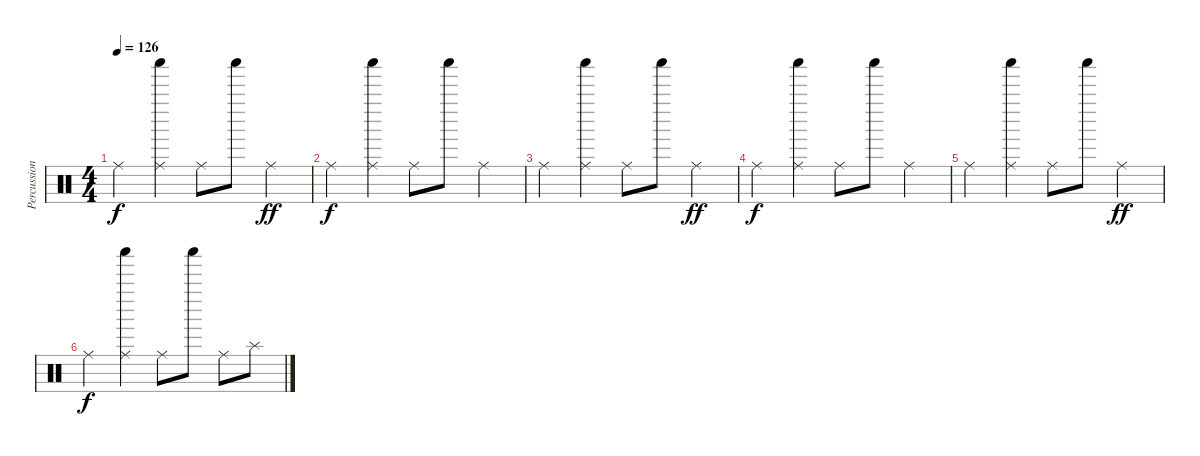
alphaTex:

\track ("Percussion" "Percussion") {instrument percussion}
\staff {score}
\articulation defaults
\ts (4 4)
\tempo 126
\clef neutral
\ks c "Ride (middle)".4{dy f}
("Ride (middle)" "Shaker (hit)").4 "Ride (middle)".8 "Shaker (hit)".8 "Ride (middle)".4{dy ff} |
"Ride (middle)".4{dy f} ("Ride (middle)" "Shaker (hit)").4 "Ride (middle)".8 "Shaker (hit)".8 "Ride (middle)".4 |
"Ride (middle)".4 ("Ride (middle)" "Shaker (hit)").4 "Ride (middle)".8 "Shaker (hit)".8 "Ride (middle)".4{dy ff} |
"Ride (middle)".4{dy f} ("Ride (middle)" "Shaker (hit)").4 "Ride (middle)".8 "Shaker (hit)".8 "Ride (middle)".4 |
"Ride (middle)".4 ("Ride (middle)" "Shaker (hit)").4 "Ride (middle)".8 "Shaker (hit)".8 "Ride (middle)".4{dy ff} |
"Ride (middle)".4{dy f} ("Ride (middle)" "Shaker (hit)").4 "Ride (middle)".8 "Shaker (hit)".8 "Ride (middle)".8 "Splash (hit)".8
